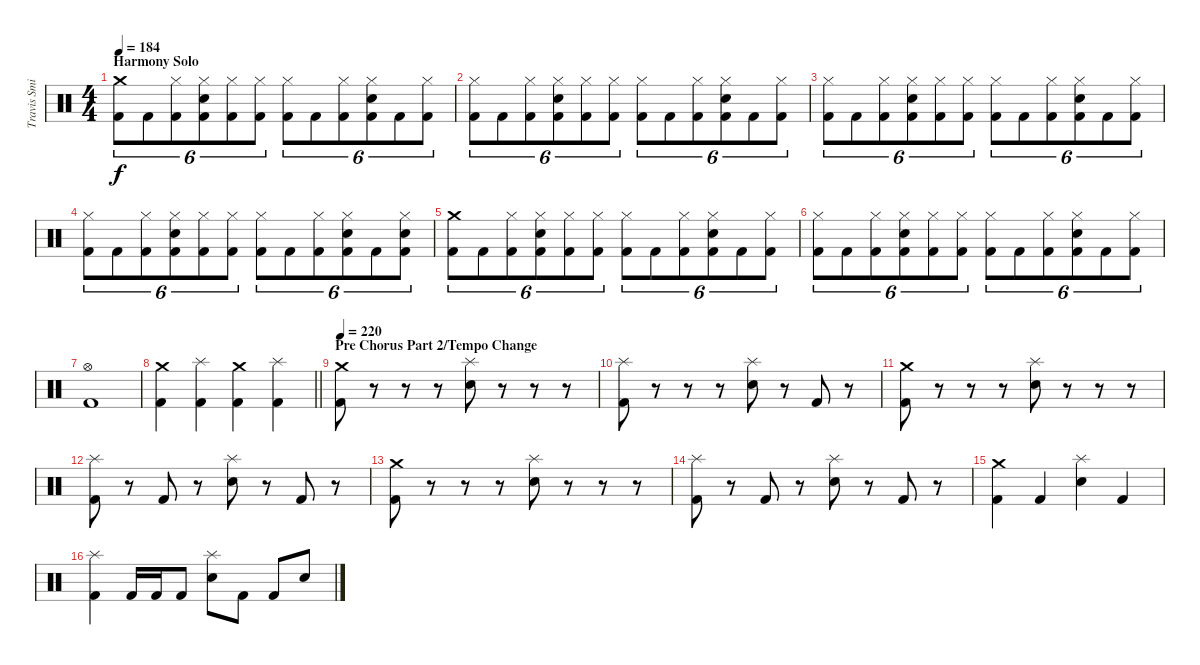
\track ("Travis Smith" "Travis Smi") {instrument percussion}
\staff {score}
\articulation defaults
\ts (4 4)
\section ("" "Harmony Solo")
\tempo 184
\clef neutral
\ks c
("Crash medium (hit)" "Kick (hit) 2").8{tu (6 4) dy f} "Kick (hit) 2".8{tu (6 4)} ("Hi-Hat (closed)" "Kick (hit) 2").8{tu (6 4)} ("Hi-Hat (closed)" "Electric Snare (hit)" "Kick (hit) 2").8{tu (6 4)} ("Hi-Hat (closed)" "Kick (hit) 2").8{tu (6 4)} ("Hi-Hat (closed)" "Kick (hit) 2").8{tu (6 4)} ("Hi-Hat (closed)" "Kick (hit) 2").8{tu (6 4)} "Kick (hit) 2".8{tu (6 4)} ("Hi-Hat (closed)" "Kick (hit) 2").8{tu (6 4)} ("Hi-Hat (closed)" "Electric Snare (hit)" "Kick (hit) 2").8{tu (6 4)} "Kick (hit) 2".8{tu (6 4)} ("Hi-Hat (closed)" "Kick (hit) 2").8{tu (6 4)} |
("Hi-Hat (closed)" "Kick (hit) 2").8{tu (6 4)} "Kick (hit) 2".8{tu (6 4)} ("Hi-Hat (closed)" "Kick (hit) 2").8{tu (6 4)} ("Hi-Hat (closed)" "Electric Snare (hit)" "Kick (hit) 2").8{tu (6 4)} ("Hi-Hat (closed)" "Kick (hit) 2").8{tu (6 4)} ("Hi-Hat (closed)" "Kick (hit) 2").8{tu (6 4)} ("Hi-Hat (closed)" "Kick (hit) 2").8{tu (6 4)} "Kick (hit) 2".8{tu (6 4)} ("Hi-Hat (closed)" "Kick (hit) 2").8{tu (6 4)} ("Hi-Hat (closed)" "Electric Snare (hit)" "Kick (hit) 2").8{tu (6 4)} "Kick (hit) 2".8{tu (6 4)} ("Hi-Hat (closed)" "Kick (hit) 2").8{tu (6 4)} |
("Hi-Hat (closed)" "Kick (hit) 2").8{tu (6 4)} "Kick (hit) 2".8{tu (6 4)} ("Hi-Hat (closed)" "Kick (hit) 2").8{tu (6 4)} ("Hi-Hat (closed)" "Electric Snare (hit)" "Kick (hit) 2").8{tu (6 4)} ("Hi-Hat (closed)" "Kick (hit) 2").8{tu (6 4)} ("Hi-Hat (closed)" "Kick (hit) 2").8{tu (6 4)} ("Hi-Hat (closed)" "Kick (hit) 2").8{tu (6 4)} "Kick (hit) 2".8{tu (6 4)} ("Hi-Hat (closed)" "Kick (hit) 2").8{tu (6 4)} ("Hi-Hat (closed)" "Electric Snare (hit)" "Kick (hit) 2").8{tu (6 4)} "Kick (hit) 2".8{tu (6 4)} ("Hi-Hat (closed)" "Kick (hit) 2").8{tu (6 4)} |
("Hi-Hat (closed)" "Kick (hit) 2").8{tu (6 4)} "Kick (hit) 2".8{tu (6 4)} ("Hi-Hat (closed)" "Kick (hit) 2").8{tu (6 4)} ("Hi-Hat (closed)" "Electric Snare (hit)" "Kick (hit) 2").8{tu (6 4)} ("Hi-Hat (closed)" "Kick (hit) 2").8{tu (6 4)} ("Hi-Hat (closed)" "Kick (hit) 2").8{tu (6 4)} ("Hi-Hat (closed)" "Kick (hit) 2").8{tu (6 4)} "Kick (hit) 2".8{tu (6 4)} ("Hi-Hat (closed)" "Kick (hit) 2").8{tu (6 4)} ("Hi-Hat (closed)" "Electric Snare (hit)" "Kick (hit) 2").8{tu (6 4)} "Kick (hit) 2".8{tu (6 4)} ("Hi-Hat (closed)" "Electric Snare (hit)" "Kick (hit) 2").8{tu (6 4)} |
("Crash medium (hit)" "Kick (hit) 2").8{tu (6 4)} "Kick (hit) 2".8{tu (6 4)} ("Hi-Hat (closed)" "Kick (hit) 2").8{tu (6 4)} ("Hi-Hat (closed)" "Electric Snare (hit)" "Kick (hit) 2").8{tu (6 4)} ("Hi-Hat (closed)" "Kick (hit) 2").8{tu (6 4)} ("Hi-Hat (closed)" "Kick (hit) 2").8{tu (6 4)} ("Hi-Hat (closed)" "Kick (hit) 2").8{tu (6 4)} "Kick (hit) 2".8{tu (6 4)} ("Hi-Hat (closed)" "Kick (hit) 2").8{tu (6 4)} ("Hi-Hat (closed)" "Electric Snare (hit)" "Kick (hit) 2").8{tu (6 4)} "Kick (hit) 2".8{tu (6 4)} ("Hi-Hat (closed)" "Kick (hit) 2").8{tu (6 4)} |
("Hi-Hat (closed)" "Kick (hit) 2").8{tu (6 4)} "Kick (hit) 2".8{tu (6 4)} ("Hi-Hat (closed)" "Kick (hit) 2").8{tu (6 4)} ("Hi-Hat (closed)" "Electric Snare (hit)" "Kick (hit) 2").8{tu (6 4)} ("Hi-Hat (closed)" "Kick (hit) 2").8{tu (6 4)} ("Hi-Hat (closed)" "Kick (hit) 2").8{tu (6 4)} ("Hi-Hat (closed)" "Kick (hit) 2").8{tu (6 4)} "Kick (hit) 2".8{tu (6 4)} ("Hi-Hat (closed)" "Kick (hit) 2").8{tu (6 4)} ("Hi-Hat (closed)" "Electric Snare (hit)" "Kick (hit) 2").8{tu (6 4)} "Kick (hit) 2".8{tu (6 4)} ("Hi-Hat (closed)" "Kick (hit) 2").8{tu (6 4)} |
("Hi-Hat (open)" "Kick (hit) 2").1 |
\barLineRight lightlight
("Crash medium (hit)" "Kick (hit) 2").4 ("Splash (hit)" "Kick (hit) 2").4 ("Crash medium (hit)" "Kick (hit) 2").4 ("Splash (hit)" "Kick (hit) 2").4 |
\section ("" "Pre Chorus Part 2/Tempo Change")
\tempo 220
("Crash medium (hit)" "Kick (hit) 2").8 r.8 r.8 r.8 ("Splash (hit)" "Electric Snare (hit)").8 r.8 r.8 r.8 |
("Splash (hit)" "Kick (hit) 2").8 r.8 r.8 r.8 ("Splash (hit)" "Electric Snare (hit)").8 r.8 "Kick (hit) 2".8 r.8 |
("Crash medium (hit)" "Kick (hit) 2").8 r.8 r.8 r.8 ("Splash (hit)" "Electric Snare (hit)").8 r.8 r.8 r.8 |
("Splash (hit)" "Kick (hit) 2").8 r.8 "Kick (hit) 2".8 r.8 ("Splash (hit)" "Electric Snare (hit)").8 r.8 "Kick (hit) 2".8 r.8 |
("Crash medium (hit)" "Kick (hit) 2").8 r.8 r.8 r.8 ("Splash (hit)" "Electric Snare (hit)").8 r.8 r.8 r.8 |
("Splash (hit)" "Kick (hit) 2").8 r.8 "Kick (hit) 2".8 r.8 ("Splash (hit)" "Electric Snare (hit)").8 r.8 "Kick (hit) 2".8 r.8 |
("Crash medium (hit)" "Kick (hit) 2").4 "Kick (hit) 2".4 ("Splash (hit)" "Electric Snare (hit)").4 "Kick (hit) 2".4 |
("Splash (hit)" "Kick (hit) 2").4 "Kick (hit) 2".16 "Kick (hit) 2".16 "Kick (hit) 2".8 ("Splash (hit)" "Electric Snare (hit)").8 "Kick (hit) 2".8 "Kick (hit) 2".8 "Electric Snare (hit)".8
